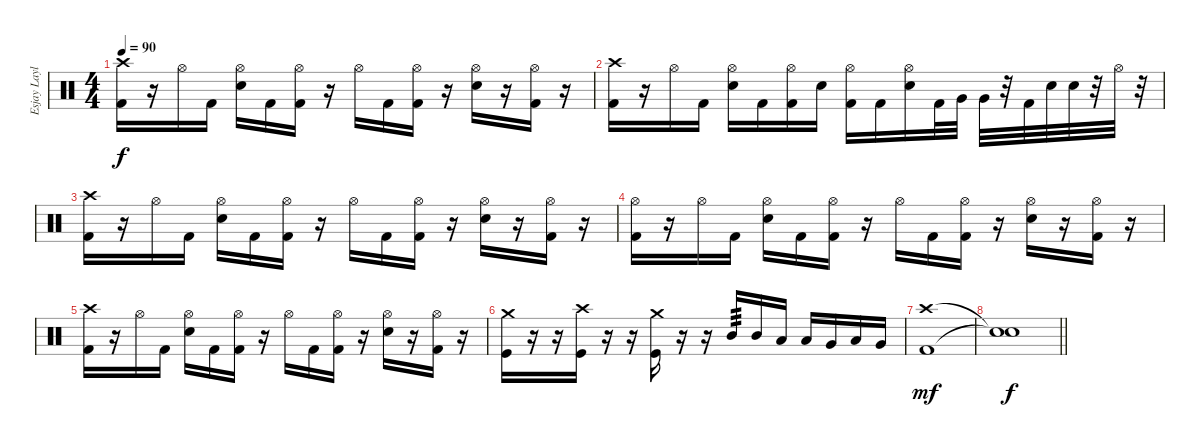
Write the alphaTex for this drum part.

\track ("Esjay Laylo's Drums" "Esjay Layl") {instrument percussion}
\staff {score}
\articulation defaults
\ts (4 4)
\tempo 90
\clef neutral
\ks c
("Crash high (hit)" "Kick (hit) 2").16{dy f} r.16 "Hi-Hat (open)".16 "Kick (hit) 2".16 ("Hi-Hat (open)" "Snare (hit) 2").16 "Kick (hit) 2".16 ("Hi-Hat (open)" "Kick (hit) 2").16 r.16 "Hi-Hat (open)".16 "Kick (hit) 2".16 ("Hi-Hat (open)" "Kick (hit) 2").16 r.16 ("Hi-Hat (open)" "Snare (hit) 2").16 r.16 ("Hi-Hat (open)" "Kick (hit) 2").16 r.16 |
("Crash high (hit)" "Kick (hit) 2").16 r.16 "Hi-Hat (open)".16 "Kick (hit) 2".16 ("Hi-Hat (open)" "Snare (hit) 2").16 "Kick (hit) 2".16 ("Hi-Hat (open)" "Kick (hit) 2").16 "Snare (hit) 2".16 ("Hi-Hat (open)" "Kick (hit) 2").16 "Kick (hit) 2".16 ("Hi-Hat (open)" "Snare (hit) 2").16 "Kick (hit) 2".32 "Very Low Tom (hit)".32 "Very Low Tom (hit)".32 r.32 "Kick (hit) 2".32 "Snare (hit) 2".32 "Snare (hit) 2".32 r.32 "Hi-Hat (open)".32 r.32 |
("Crash high (hit)" "Kick (hit) 2").16 r.16 "Hi-Hat (open)".16 "Kick (hit) 2".16 ("Hi-Hat (open)" "Snare (hit) 2").16 "Kick (hit) 2".16 ("Hi-Hat (open)" "Kick (hit) 2").16 r.16 "Hi-Hat (open)".16 "Kick (hit) 2".16 ("Hi-Hat (open)" "Kick (hit) 2").16 r.16 ("Hi-Hat (open)" "Snare (hit) 2").16 r.16 ("Hi-Hat (open)" "Kick (hit) 2").16 r.16 |
("Hi-Hat (open)" "Kick (hit) 2").16 r.16 "Hi-Hat (open)".16 "Kick (hit) 2".16 ("Hi-Hat (open)" "Snare (hit) 2").16 "Kick (hit) 2".16 ("Hi-Hat (open)" "Kick (hit) 2").16 r.16 "Hi-Hat (open)".16 "Kick (hit) 2".16 ("Hi-Hat (open)" "Kick (hit) 2").16 r.16 ("Hi-Hat (open)" "Snare (hit) 2").16 r.16 ("Hi-Hat (open)" "Kick (hit) 2").16 r.16 |
("Crash high (hit)" "Kick (hit) 2").16 r.16 "Hi-Hat (open)".16 "Kick (hit) 2".16 ("Hi-Hat (open)" "Snare (hit) 2").16 "Kick (hit) 2".16 ("Hi-Hat (open)" "Kick (hit) 2").16 r.16 "Hi-Hat (open)".16 "Kick (hit) 2".16 ("Hi-Hat (open)" "Kick (hit) 2").16 r.16 ("Hi-Hat (open)" "Snare (hit) 2").16 r.16 ("Hi-Hat (open)" "Kick (hit) 2").16 r.16 |
("Crash medium (hit)" "Kick (hit)").16 r.16 r.16 ("Crash high (hit)" "Kick (hit)").16 r.16 r.16 ("Crash medium (hit)" "Kick (hit)").16 r.16 r.16 "Mid Tom (hit)".16{tp 3} "Mid Tom (hit)".16 "Low Tom (hit)".16 "Low Tom (hit)".16 "Very Low Tom (hit)".16 "Low Tom (hit)".16 "Very Low Tom (hit)".16 |
("Crash high (hit)" "Kick (hit) 2").1{dy mf} |
\barLineRight lightlight
("Snare (hit)"{t} "Snare (hit)"{t}).1{dy f}
